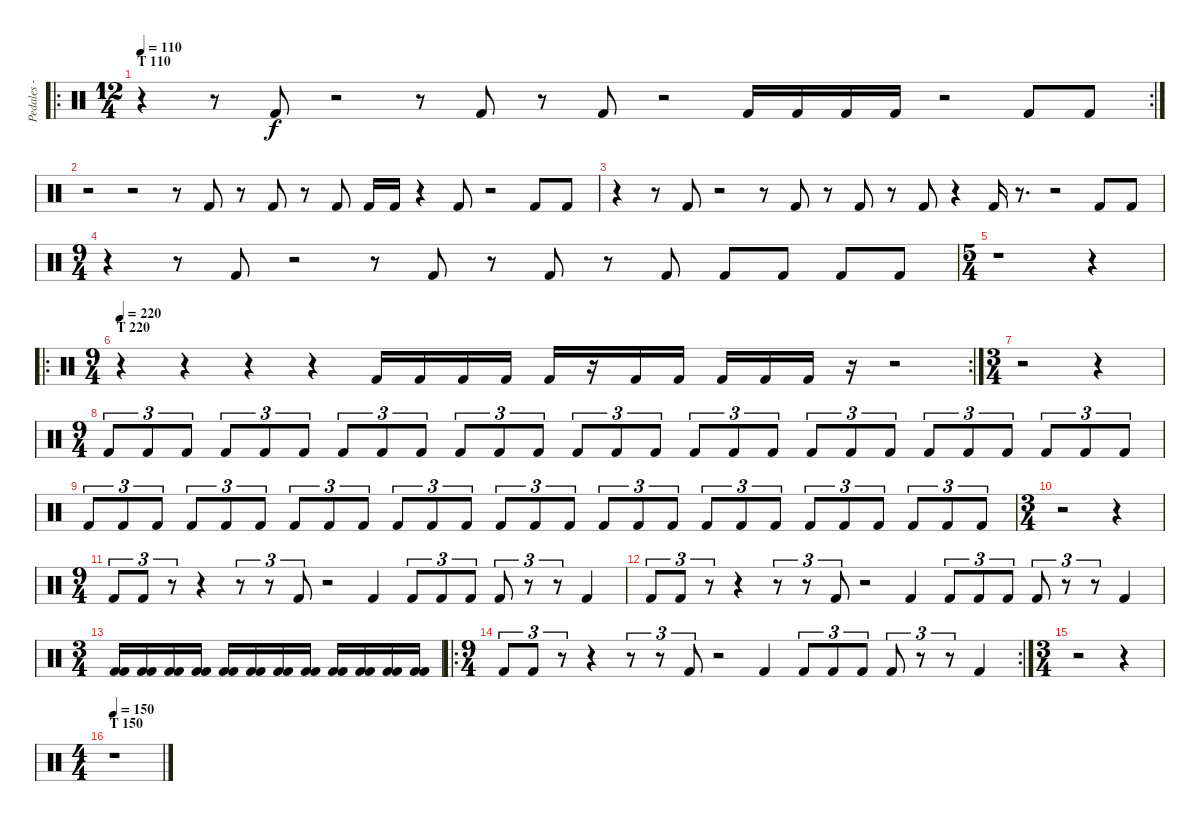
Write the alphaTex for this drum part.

\track ("Pedales - Compa" "Pedales - ") {instrument percussion}
\staff {score}
\articulation defaults
\ro
\rc 2
\ts (12 4)
\section ("" "T 110")
\tempo 110
\clef neutral
\ks c
r.4{dy f} r.8 "Kick (hit) 2".8 r.2 r.8 "Kick (hit) 2".8 r.8 "Kick (hit) 2".8 r.2 "Kick (hit) 2".16 "Kick (hit) 2".16 "Kick (hit) 2".16 "Kick (hit) 2".16 r.2 "Kick (hit) 2".8 "Kick (hit) 2".8 |
r.2 r.2 r.8 "Kick (hit) 2".8 r.8 "Kick (hit) 2".8 r.8 "Kick (hit) 2".8 "Kick (hit) 2".16 "Kick (hit) 2".16 r.4 "Kick (hit) 2".8 r.2 "Kick (hit) 2".8 "Kick (hit) 2".8 |
r.4 r.8 "Kick (hit) 2".8 r.2 r.8 "Kick (hit) 2".8 r.8 "Kick (hit) 2".8 r.8 "Kick (hit) 2".8 r.4 "Kick (hit) 2".16 r.8{d} r.2 "Kick (hit) 2".8 "Kick (hit) 2".8 |
\ts (9 4)
r.4 r.8 "Kick (hit) 2".8 r.2 r.8 "Kick (hit) 2".8 r.8 "Kick (hit) 2".8 r.8 "Kick (hit) 2".8 "Kick (hit) 2".8 "Kick (hit) 2".8 "Kick (hit) 2".8 "Kick (hit) 2".8 |
\ts (5 4)
r.1 r.4 |
\ro
\rc 2
\ts (9 4)
\section ("" "T 220")
\tempo 220
r.4 r.4 r.4 r.4 "Kick (hit) 2".16 "Kick (hit) 2".16 "Kick (hit) 2".16 "Kick (hit) 2".16 "Kick (hit) 2".16 r.16 "Kick (hit) 2".16 "Kick (hit) 2".16 "Kick (hit) 2".16 "Kick (hit) 2".16 "Kick (hit) 2".16 r.16 r.2 |
\ts (3 4)
r.2 r.4 |
\ts (9 4)
"Kick (hit) 2".8{tu (3 2)} "Kick (hit) 2".8{tu (3 2)} "Kick (hit) 2".8{tu (3 2)} "Kick (hit) 2".8{tu (3 2)} "Kick (hit) 2".8{tu (3 2)} "Kick (hit) 2".8{tu (3 2)} "Kick (hit) 2".8{tu (3 2)} "Kick (hit) 2".8{tu (3 2)} "Kick (hit) 2".8{tu (3 2)} "Kick (hit) 2".8{tu (3 2)} "Kick (hit) 2".8{tu (3 2)} "Kick (hit) 2".8{tu (3 2)} "Kick (hit) 2".8{tu (3 2)} "Kick (hit) 2".8{tu (3 2)} "Kick (hit) 2".8{tu (3 2)} "Kick (hit) 2".8{tu (3 2)} "Kick (hit) 2".8{tu (3 2)} "Kick (hit) 2".8{tu (3 2)} "Kick (hit) 2".8{tu (3 2)} "Kick (hit) 2".8{tu (3 2)} "Kick (hit) 2".8{tu (3 2)} "Kick (hit) 2".8{tu (3 2)} "Kick (hit) 2".8{tu (3 2)} "Kick (hit) 2".8{tu (3 2)} "Kick (hit) 2".8{tu (3 2)} "Kick (hit) 2".8{tu (3 2)} "Kick (hit) 2".8{tu (3 2)} |
"Kick (hit) 2".8{tu (3 2)} "Kick (hit) 2".8{tu (3 2)} "Kick (hit) 2".8{tu (3 2)} "Kick (hit) 2".8{tu (3 2)} "Kick (hit) 2".8{tu (3 2)} "Kick (hit) 2".8{tu (3 2)} "Kick (hit) 2".8{tu (3 2)} "Kick (hit) 2".8{tu (3 2)} "Kick (hit) 2".8{tu (3 2)} "Kick (hit) 2".8{tu (3 2)} "Kick (hit) 2".8{tu (3 2)} "Kick (hit) 2".8{tu (3 2)} "Kick (hit) 2".8{tu (3 2)} "Kick (hit) 2".8{tu (3 2)} "Kick (hit) 2".8{tu (3 2)} "Kick (hit) 2".8{tu (3 2)} "Kick (hit) 2".8{tu (3 2)} "Kick (hit) 2".8{tu (3 2)} "Kick (hit) 2".8{tu (3 2)} "Kick (hit) 2".8{tu (3 2)} "Kick (hit) 2".8{tu (3 2)} "Kick (hit) 2".8{tu (3 2)} "Kick (hit) 2".8{tu (3 2)} "Kick (hit) 2".8{tu (3 2)} "Kick (hit) 2".8{tu (3 2)} "Kick (hit) 2".8{tu (3 2)} "Kick (hit) 2".8{tu (3 2)} |
\ts (3 4)
r.2 r.4 |
\ts (9 4)
"Kick (hit) 2".8{tu (3 2)} "Kick (hit) 2".8{tu (3 2)} r.8{tu (3 2)} r.4 r.8{tu (3 2)} r.8{tu (3 2)} "Kick (hit) 2".8{tu (3 2)} r.2 "Kick (hit) 2".4 "Kick (hit) 2".8{tu (3 2)} "Kick (hit) 2".8{tu (3 2)} "Kick (hit) 2".8{tu (3 2)} "Kick (hit) 2".8{tu (3 2)} r.8{tu (3 2)} r.8{tu (3 2)} "Kick (hit) 2".4 |
"Kick (hit) 2".8{tu (3 2)} "Kick (hit) 2".8{tu (3 2)} r.8{tu (3 2)} r.4 r.8{tu (3 2)} r.8{tu (3 2)} "Kick (hit) 2".8{tu (3 2)} r.2 "Kick (hit) 2".4 "Kick (hit) 2".8{tu (3 2)} "Kick (hit) 2".8{tu (3 2)} "Kick (hit) 2".8{tu (3 2)} "Kick (hit) 2".8{tu (3 2)} r.8{tu (3 2)} r.8{tu (3 2)} "Kick (hit) 2".4 |
\ts (3 4)
("Kick (hit) 2" "Kick (hit) 2").16 ("Kick (hit) 2" "Kick (hit) 2").16 ("Kick (hit) 2" "Kick (hit) 2").16 ("Kick (hit) 2" "Kick (hit) 2").16 ("Kick (hit) 2" "Kick (hit) 2").16 ("Kick (hit) 2" "Kick (hit) 2").16 ("Kick (hit) 2" "Kick (hit) 2").16 ("Kick (hit) 2" "Kick (hit) 2").16 ("Kick (hit) 2" "Kick (hit) 2").16 ("Kick (hit) 2" "Kick (hit) 2").16 ("Kick (hit) 2" "Kick (hit) 2").16 ("Kick (hit) 2" "Kick (hit) 2").16 |
\ro
\rc 2
\ts (9 4)
"Kick (hit) 2".8{tu (3 2)} "Kick (hit) 2".8{tu (3 2)} r.8{tu (3 2)} r.4 r.8{tu (3 2)} r.8{tu (3 2)} "Kick (hit) 2".8{tu (3 2)} r.2 "Kick (hit) 2".4 "Kick (hit) 2".8{tu (3 2)} "Kick (hit) 2".8{tu (3 2)} "Kick (hit) 2".8{tu (3 2)} "Kick (hit) 2".8{tu (3 2)} r.8{tu (3 2)} r.8{tu (3 2)} "Kick (hit) 2".4 |
\ts (3 4)
r.2 r.4 |
\ts (4 4)
\section ("" "T 150")
\tempo 150
r.1
